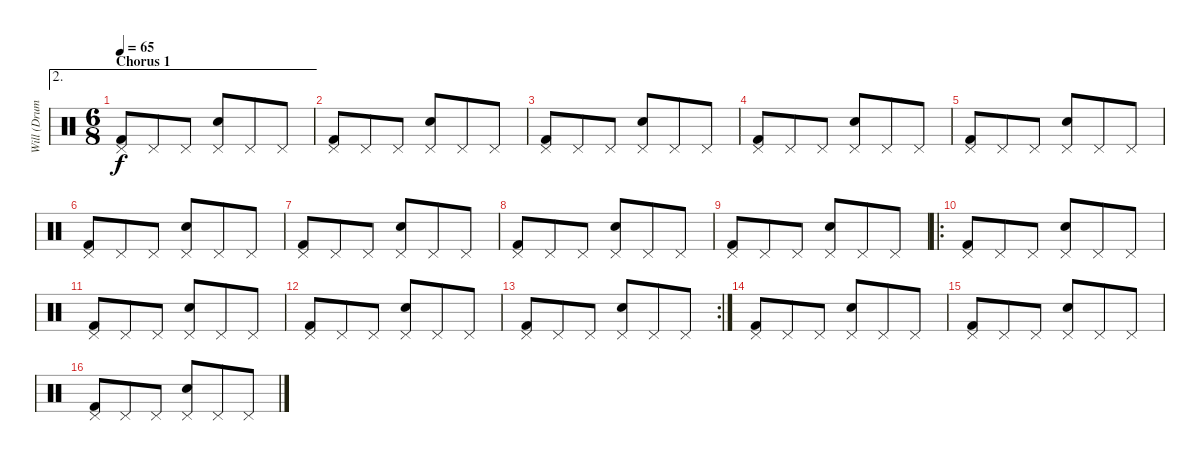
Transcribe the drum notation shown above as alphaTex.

\track ("Will (Drums)" "Will (Drum") {instrument percussion}
\staff {score}
\articulation defaults
\ae 2
\ts (6 8)
\section ("" "Chorus 1 ")
\tempo 65
\clef neutral
\ks c
("Pedal Hi-Hat (hit)" "Kick (hit) 2").8{dy f} "Pedal Hi-Hat (hit)".8 "Pedal Hi-Hat (hit)".8 ("Pedal Hi-Hat (hit)" "Snare (hit) 2").8 "Pedal Hi-Hat (hit)".8 "Pedal Hi-Hat (hit)".8 |
("Pedal Hi-Hat (hit)" "Kick (hit) 2").8 "Pedal Hi-Hat (hit)".8 "Pedal Hi-Hat (hit)".8 ("Pedal Hi-Hat (hit)" "Snare (hit) 2").8 "Pedal Hi-Hat (hit)".8 "Pedal Hi-Hat (hit)".8 |
("Pedal Hi-Hat (hit)" "Kick (hit) 2").8 "Pedal Hi-Hat (hit)".8 "Pedal Hi-Hat (hit)".8 ("Pedal Hi-Hat (hit)" "Snare (hit) 2").8 "Pedal Hi-Hat (hit)".8 "Pedal Hi-Hat (hit)".8 |
("Pedal Hi-Hat (hit)" "Kick (hit) 2").8 "Pedal Hi-Hat (hit)".8 "Pedal Hi-Hat (hit)".8 ("Pedal Hi-Hat (hit)" "Snare (hit) 2").8 "Pedal Hi-Hat (hit)".8 "Pedal Hi-Hat (hit)".8 |
("Pedal Hi-Hat (hit)" "Kick (hit) 2").8 "Pedal Hi-Hat (hit)".8 "Pedal Hi-Hat (hit)".8 ("Pedal Hi-Hat (hit)" "Snare (hit) 2").8 "Pedal Hi-Hat (hit)".8 "Pedal Hi-Hat (hit)".8 |
("Pedal Hi-Hat (hit)" "Kick (hit) 2").8 "Pedal Hi-Hat (hit)".8 "Pedal Hi-Hat (hit)".8 ("Pedal Hi-Hat (hit)" "Snare (hit) 2").8 "Pedal Hi-Hat (hit)".8 "Pedal Hi-Hat (hit)".8 |
("Pedal Hi-Hat (hit)" "Kick (hit) 2").8 "Pedal Hi-Hat (hit)".8 "Pedal Hi-Hat (hit)".8 ("Pedal Hi-Hat (hit)" "Snare (hit) 2").8 "Pedal Hi-Hat (hit)".8 "Pedal Hi-Hat (hit)".8 |
("Pedal Hi-Hat (hit)" "Kick (hit) 2").8 "Pedal Hi-Hat (hit)".8 "Pedal Hi-Hat (hit)".8 ("Pedal Hi-Hat (hit)" "Snare (hit) 2").8 "Pedal Hi-Hat (hit)".8 "Pedal Hi-Hat (hit)".8 |
("Pedal Hi-Hat (hit)" "Kick (hit) 2").8 "Pedal Hi-Hat (hit)".8 "Pedal Hi-Hat (hit)".8 ("Pedal Hi-Hat (hit)" "Snare (hit) 2").8 "Pedal Hi-Hat (hit)".8 "Pedal Hi-Hat (hit)".8 |
\ro
("Pedal Hi-Hat (hit)" "Kick (hit) 2").8 "Pedal Hi-Hat (hit)".8 "Pedal Hi-Hat (hit)".8 ("Pedal Hi-Hat (hit)" "Snare (hit) 2").8 "Pedal Hi-Hat (hit)".8 "Pedal Hi-Hat (hit)".8 |
("Pedal Hi-Hat (hit)" "Kick (hit) 2").8 "Pedal Hi-Hat (hit)".8 "Pedal Hi-Hat (hit)".8 ("Pedal Hi-Hat (hit)" "Snare (hit) 2").8 "Pedal Hi-Hat (hit)".8 "Pedal Hi-Hat (hit)".8 |
("Pedal Hi-Hat (hit)" "Kick (hit) 2").8 "Pedal Hi-Hat (hit)".8 "Pedal Hi-Hat (hit)".8 ("Pedal Hi-Hat (hit)" "Snare (hit) 2").8 "Pedal Hi-Hat (hit)".8 "Pedal Hi-Hat (hit)".8 |
\rc 2
("Pedal Hi-Hat (hit)" "Kick (hit) 2").8 "Pedal Hi-Hat (hit)".8 "Pedal Hi-Hat (hit)".8 ("Pedal Hi-Hat (hit)" "Snare (hit) 2").8 "Pedal Hi-Hat (hit)".8 "Pedal Hi-Hat (hit)".8 |
("Pedal Hi-Hat (hit)" "Kick (hit) 2").8 "Pedal Hi-Hat (hit)".8 "Pedal Hi-Hat (hit)".8 ("Pedal Hi-Hat (hit)" "Snare (hit) 2").8 "Pedal Hi-Hat (hit)".8 "Pedal Hi-Hat (hit)".8 |
("Pedal Hi-Hat (hit)" "Kick (hit) 2").8 "Pedal Hi-Hat (hit)".8 "Pedal Hi-Hat (hit)".8 ("Pedal Hi-Hat (hit)" "Snare (hit) 2").8 "Pedal Hi-Hat (hit)".8 "Pedal Hi-Hat (hit)".8 |
("Pedal Hi-Hat (hit)" "Kick (hit) 2").8 "Pedal Hi-Hat (hit)".8 "Pedal Hi-Hat (hit)".8 ("Pedal Hi-Hat (hit)" "Snare (hit) 2").8 "Pedal Hi-Hat (hit)".8 "Pedal Hi-Hat (hit)".8
